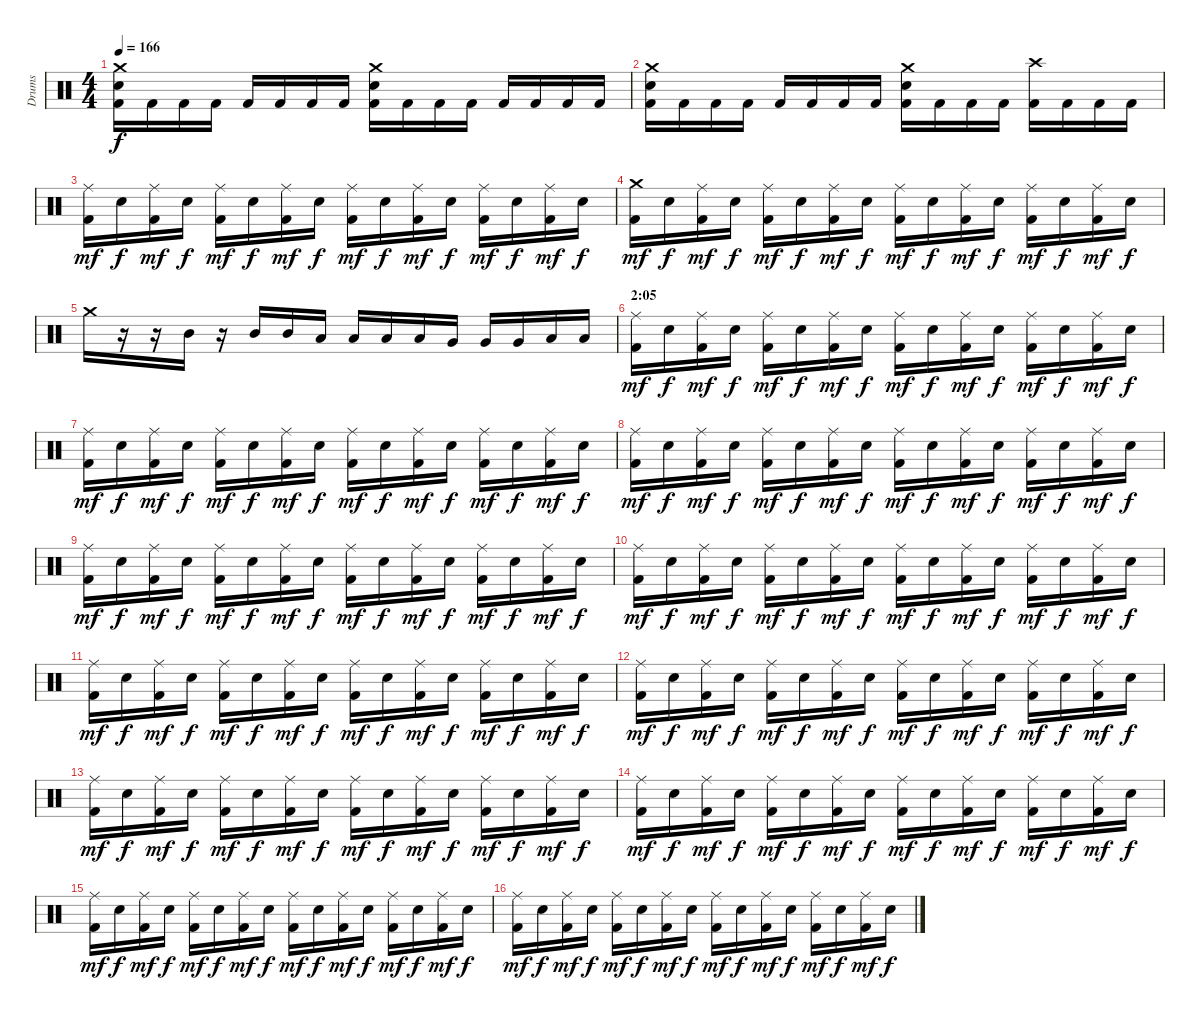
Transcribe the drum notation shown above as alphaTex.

\track ("Drums" "Drums") {instrument percussion}
\staff {score}
\articulation defaults
\ts (4 4)
\tempo 166
\clef neutral
\ks c
("Crash medium (hit)" "Electric Snare (hit)" "Kick (hit) 2").16{dy f} "Kick (hit) 2".16 "Kick (hit) 2".16 "Kick (hit) 2".16 "Kick (hit) 2".16 "Kick (hit) 2".16 "Kick (hit) 2".16 "Kick (hit) 2".16 ("Crash medium (hit)" "Electric Snare (hit)" "Kick (hit) 2").16 "Kick (hit) 2".16 "Kick (hit) 2".16 "Kick (hit) 2".16 "Kick (hit) 2".16 "Kick (hit) 2".16 "Kick (hit) 2".16 "Kick (hit) 2".16 |
("Crash medium (hit)" "Electric Snare (hit)" "Kick (hit) 2").16 "Kick (hit) 2".16 "Kick (hit) 2".16 "Kick (hit) 2".16 "Kick (hit) 2".16 "Kick (hit) 2".16 "Kick (hit) 2".16 "Kick (hit) 2".16 ("Crash medium (hit)" "Electric Snare (hit)" "Kick (hit) 2").16 "Kick (hit) 2".16 "Kick (hit) 2".16 "Kick (hit) 2".16 ("Crash high (hit)" "Kick (hit) 2").16 "Kick (hit) 2".16 "Kick (hit) 2".16 "Kick (hit) 2".16 |
("Ride (middle)" "Kick (hit) 2").16{dy mf} "Snare (hit) 2".16{dy f} ("Ride (middle)" "Kick (hit) 2").16{dy mf} "Snare (hit) 2".16{dy f} ("Ride (middle)" "Kick (hit) 2").16{dy mf} "Snare (hit) 2".16{dy f} ("Ride (middle)" "Kick (hit) 2").16{dy mf} "Snare (hit) 2".16{dy f} ("Ride (middle)" "Kick (hit) 2").16{dy mf} "Snare (hit) 2".16{dy f} ("Ride (middle)" "Kick (hit) 2").16{dy mf} "Snare (hit) 2".16{dy f} ("Ride (middle)" "Kick (hit) 2").16{dy mf} "Snare (hit) 2".16{dy f} ("Ride (middle)" "Kick (hit) 2").16{dy mf} "Snare (hit) 2".16{dy f} |
("Crash medium (hit)" "Kick (hit) 2").16{dy mf} "Snare (hit) 2".16{dy f} ("Ride (middle)" "Kick (hit) 2").16{dy mf} "Snare (hit) 2".16{dy f} ("Ride (middle)" "Kick (hit) 2").16{dy mf} "Snare (hit) 2".16{dy f} ("Ride (middle)" "Kick (hit) 2").16{dy mf} "Snare (hit) 2".16{dy f} ("Ride (middle)" "Kick (hit) 2").16{dy mf} "Snare (hit) 2".16{dy f} ("Ride (middle)" "Kick (hit) 2").16{dy mf} "Snare (hit) 2".16{dy f} ("Ride (middle)" "Kick (hit) 2").16{dy mf} "Snare (hit) 2".16{dy f} ("Ride (middle)" "Kick (hit) 2").16{dy mf} "Snare (hit) 2".16{dy f} |
"Crash medium (hit)".16 r.16 r.16 "Mid Tom (hit)".16 r.16 "Mid Tom (hit)".16 "Mid Tom (hit)".16 "Low Tom (hit)".16 "Low Tom (hit)".16 "Low Tom (hit)".16 "Low Tom (hit)".16 "Very Low Tom (hit)".16 "Very Low Tom (hit)".16 "Very Low Tom (hit)".16 "Low Floor Tom (hit)".16 "Low Floor Tom (hit)".16 |
\section ("" "2:05")
("Ride (middle)" "Kick (hit) 2").16{dy mf} "Snare (hit) 2".16{dy f} ("Ride (middle)" "Kick (hit) 2").16{dy mf} "Snare (hit) 2".16{dy f} ("Ride (middle)" "Kick (hit) 2").16{dy mf} "Snare (hit) 2".16{dy f} ("Ride (middle)" "Kick (hit) 2").16{dy mf} "Snare (hit) 2".16{dy f} ("Ride (middle)" "Kick (hit) 2").16{dy mf} "Snare (hit) 2".16{dy f} ("Ride (middle)" "Kick (hit) 2").16{dy mf} "Snare (hit) 2".16{dy f} ("Ride (middle)" "Kick (hit) 2").16{dy mf} "Snare (hit) 2".16{dy f} ("Ride (middle)" "Kick (hit) 2").16{dy mf} "Snare (hit) 2".16{dy f} |
("Ride (middle)" "Kick (hit) 2").16{dy mf} "Snare (hit) 2".16{dy f} ("Ride (middle)" "Kick (hit) 2").16{dy mf} "Snare (hit) 2".16{dy f} ("Ride (middle)" "Kick (hit) 2").16{dy mf} "Snare (hit) 2".16{dy f} ("Ride (middle)" "Kick (hit) 2").16{dy mf} "Snare (hit) 2".16{dy f} ("Ride (middle)" "Kick (hit) 2").16{dy mf} "Snare (hit) 2".16{dy f} ("Ride (middle)" "Kick (hit) 2").16{dy mf} "Snare (hit) 2".16{dy f} ("Ride (middle)" "Kick (hit) 2").16{dy mf} "Snare (hit) 2".16{dy f} ("Ride (middle)" "Kick (hit) 2").16{dy mf} "Snare (hit) 2".16{dy f} |
("Ride (middle)" "Kick (hit) 2").16{dy mf} "Snare (hit) 2".16{dy f} ("Ride (middle)" "Kick (hit) 2").16{dy mf} "Snare (hit) 2".16{dy f} ("Ride (middle)" "Kick (hit) 2").16{dy mf} "Snare (hit) 2".16{dy f} ("Ride (middle)" "Kick (hit) 2").16{dy mf} "Snare (hit) 2".16{dy f} ("Ride (middle)" "Kick (hit) 2").16{dy mf} "Snare (hit) 2".16{dy f} ("Ride (middle)" "Kick (hit) 2").16{dy mf} "Snare (hit) 2".16{dy f} ("Ride (middle)" "Kick (hit) 2").16{dy mf} "Snare (hit) 2".16{dy f} ("Ride (middle)" "Kick (hit) 2").16{dy mf} "Snare (hit) 2".16{dy f} |
("Ride (middle)" "Kick (hit) 2").16{dy mf} "Snare (hit) 2".16{dy f} ("Ride (middle)" "Kick (hit) 2").16{dy mf} "Snare (hit) 2".16{dy f} ("Ride (middle)" "Kick (hit) 2").16{dy mf} "Snare (hit) 2".16{dy f} ("Ride (middle)" "Kick (hit) 2").16{dy mf} "Snare (hit) 2".16{dy f} ("Ride (middle)" "Kick (hit) 2").16{dy mf} "Snare (hit) 2".16{dy f} ("Ride (middle)" "Kick (hit) 2").16{dy mf} "Snare (hit) 2".16{dy f} ("Ride (middle)" "Kick (hit) 2").16{dy mf} "Snare (hit) 2".16{dy f} ("Ride (middle)" "Kick (hit) 2").16{dy mf} "Snare (hit) 2".16{dy f} |
("Ride (middle)" "Kick (hit) 2").16{dy mf} "Snare (hit) 2".16{dy f} ("Ride (middle)" "Kick (hit) 2").16{dy mf} "Snare (hit) 2".16{dy f} ("Ride (middle)" "Kick (hit) 2").16{dy mf} "Snare (hit) 2".16{dy f} ("Ride (middle)" "Kick (hit) 2").16{dy mf} "Snare (hit) 2".16{dy f} ("Ride (middle)" "Kick (hit) 2").16{dy mf} "Snare (hit) 2".16{dy f} ("Ride (middle)" "Kick (hit) 2").16{dy mf} "Snare (hit) 2".16{dy f} ("Ride (middle)" "Kick (hit) 2").16{dy mf} "Snare (hit) 2".16{dy f} ("Ride (middle)" "Kick (hit) 2").16{dy mf} "Snare (hit) 2".16{dy f} |
("Ride (middle)" "Kick (hit) 2").16{dy mf} "Snare (hit) 2".16{dy f} ("Ride (middle)" "Kick (hit) 2").16{dy mf} "Snare (hit) 2".16{dy f} ("Ride (middle)" "Kick (hit) 2").16{dy mf} "Snare (hit) 2".16{dy f} ("Ride (middle)" "Kick (hit) 2").16{dy mf} "Snare (hit) 2".16{dy f} ("Ride (middle)" "Kick (hit) 2").16{dy mf} "Snare (hit) 2".16{dy f} ("Ride (middle)" "Kick (hit) 2").16{dy mf} "Snare (hit) 2".16{dy f} ("Ride (middle)" "Kick (hit) 2").16{dy mf} "Snare (hit) 2".16{dy f} ("Ride (middle)" "Kick (hit) 2").16{dy mf} "Snare (hit) 2".16{dy f} |
("Ride (middle)" "Kick (hit) 2").16{dy mf} "Snare (hit) 2".16{dy f} ("Ride (middle)" "Kick (hit) 2").16{dy mf} "Snare (hit) 2".16{dy f} ("Ride (middle)" "Kick (hit) 2").16{dy mf} "Snare (hit) 2".16{dy f} ("Ride (middle)" "Kick (hit) 2").16{dy mf} "Snare (hit) 2".16{dy f} ("Ride (middle)" "Kick (hit) 2").16{dy mf} "Snare (hit) 2".16{dy f} ("Ride (middle)" "Kick (hit) 2").16{dy mf} "Snare (hit) 2".16{dy f} ("Ride (middle)" "Kick (hit) 2").16{dy mf} "Snare (hit) 2".16{dy f} ("Ride (middle)" "Kick (hit) 2").16{dy mf} "Snare (hit) 2".16{dy f} |
("Ride (middle)" "Kick (hit) 2").16{dy mf} "Snare (hit) 2".16{dy f} ("Ride (middle)" "Kick (hit) 2").16{dy mf} "Snare (hit) 2".16{dy f} ("Ride (middle)" "Kick (hit) 2").16{dy mf} "Snare (hit) 2".16{dy f} ("Ride (middle)" "Kick (hit) 2").16{dy mf} "Snare (hit) 2".16{dy f} ("Ride (middle)" "Kick (hit) 2").16{dy mf} "Snare (hit) 2".16{dy f} ("Ride (middle)" "Kick (hit) 2").16{dy mf} "Snare (hit) 2".16{dy f} ("Ride (middle)" "Kick (hit) 2").16{dy mf} "Snare (hit) 2".16{dy f} ("Ride (middle)" "Kick (hit) 2").16{dy mf} "Snare (hit) 2".16{dy f} |
("Ride (middle)" "Kick (hit) 2").16{dy mf} "Snare (hit) 2".16{dy f} ("Ride (middle)" "Kick (hit) 2").16{dy mf} "Snare (hit) 2".16{dy f} ("Ride (middle)" "Kick (hit) 2").16{dy mf} "Snare (hit) 2".16{dy f} ("Ride (middle)" "Kick (hit) 2").16{dy mf} "Snare (hit) 2".16{dy f} ("Ride (middle)" "Kick (hit) 2").16{dy mf} "Snare (hit) 2".16{dy f} ("Ride (middle)" "Kick (hit) 2").16{dy mf} "Snare (hit) 2".16{dy f} ("Ride (middle)" "Kick (hit) 2").16{dy mf} "Snare (hit) 2".16{dy f} ("Ride (middle)" "Kick (hit) 2").16{dy mf} "Snare (hit) 2".16{dy f} |
("Ride (middle)" "Kick (hit) 2").16{dy mf} "Snare (hit) 2".16{dy f} ("Ride (middle)" "Kick (hit) 2").16{dy mf} "Snare (hit) 2".16{dy f} ("Ride (middle)" "Kick (hit) 2").16{dy mf} "Snare (hit) 2".16{dy f} ("Ride (middle)" "Kick (hit) 2").16{dy mf} "Snare (hit) 2".16{dy f} ("Ride (middle)" "Kick (hit) 2").16{dy mf} "Snare (hit) 2".16{dy f} ("Ride (middle)" "Kick (hit) 2").16{dy mf} "Snare (hit) 2".16{dy f} ("Ride (middle)" "Kick (hit) 2").16{dy mf} "Snare (hit) 2".16{dy f} ("Ride (middle)" "Kick (hit) 2").16{dy mf} "Snare (hit) 2".16{dy f} |
("Ride (middle)" "Kick (hit) 2").16{dy mf} "Snare (hit) 2".16{dy f} ("Ride (middle)" "Kick (hit) 2").16{dy mf} "Snare (hit) 2".16{dy f} ("Ride (middle)" "Kick (hit) 2").16{dy mf} "Snare (hit) 2".16{dy f} ("Ride (middle)" "Kick (hit) 2").16{dy mf} "Snare (hit) 2".16{dy f} ("Ride (middle)" "Kick (hit) 2").16{dy mf} "Snare (hit) 2".16{dy f} ("Ride (middle)" "Kick (hit) 2").16{dy mf} "Snare (hit) 2".16{dy f} ("Ride (middle)" "Kick (hit) 2").16{dy mf} "Snare (hit) 2".16{dy f} ("Ride (middle)" "Kick (hit) 2").16{dy mf} "Snare (hit) 2".16{dy f}
